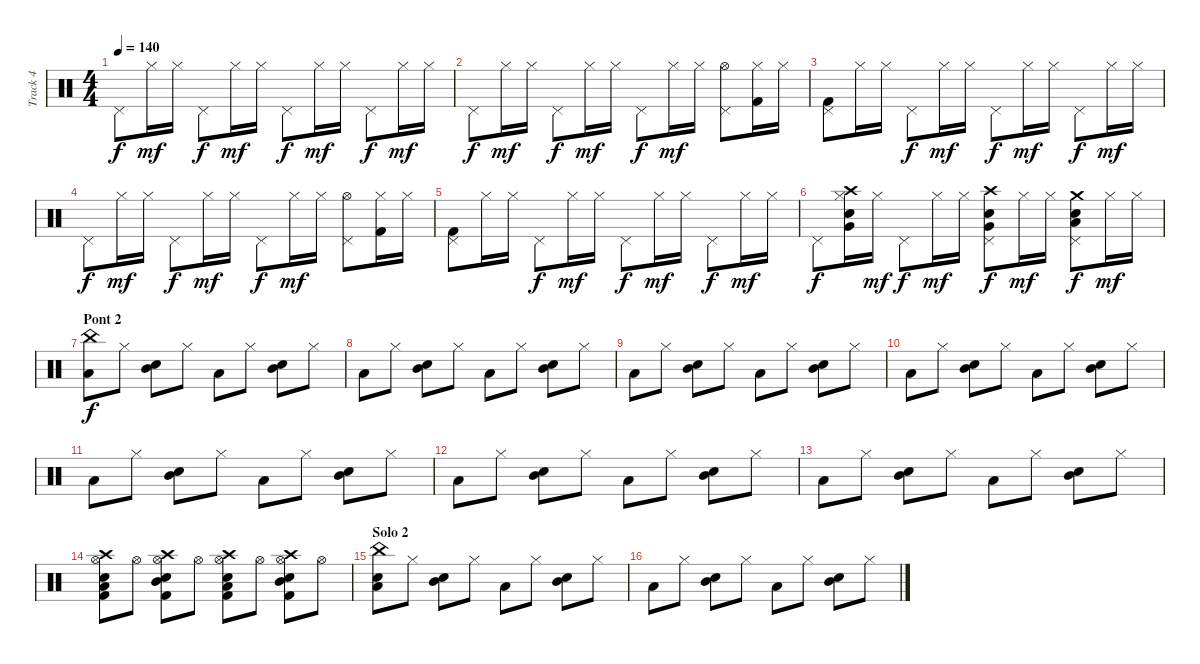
\track ("Track 4" "Track 4") {instrument percussion}
\staff {score}
\articulation defaults
\ts (4 4)
\tempo 140
\clef neutral
\ks c "Pedal Hi-Hat (hit)".8{dy f} "Hi-Hat (closed)".16{dy mf} "Hi-Hat (closed)".16 "Pedal Hi-Hat (hit)".8{dy f} "Hi-Hat (closed)".16{dy mf} "Hi-Hat (closed)".16 "Pedal Hi-Hat (hit)".8{dy f} "Hi-Hat (closed)".16{dy mf} "Hi-Hat (closed)".16 "Pedal Hi-Hat (hit)".8{dy f} "Hi-Hat (closed)".16{dy mf} "Hi-Hat (closed)".16
|
"Pedal Hi-Hat (hit)".8{dy f} "Hi-Hat (closed)".16{dy mf} "Hi-Hat (closed)".16 "Pedal Hi-Hat (hit)".8{dy f} "Hi-Hat (closed)".16{dy mf} "Hi-Hat (closed)".16 "Pedal Hi-Hat (hit)".8{dy f} "Hi-Hat (closed)".16{dy mf} "Hi-Hat (closed)".16 ("Pedal Hi-Hat (hit)" "Hi-Hat (open)").8 ("Hi-Hat (closed)" "Kick (hit) 2").16 "Hi-Hat (closed)".16 |
("Pedal Hi-Hat (hit)" "Kick (hit) 2").8 "Hi-Hat (closed)".16 "Hi-Hat (closed)".16 "Pedal Hi-Hat (hit)".8{dy f} "Hi-Hat (closed)".16{dy mf} "Hi-Hat (closed)".16 "Pedal Hi-Hat (hit)".8{dy f} "Hi-Hat (closed)".16{dy mf} "Hi-Hat (closed)".16 "Pedal Hi-Hat (hit)".8{dy f} "Hi-Hat (closed)".16{dy mf} "Hi-Hat (closed)".16 |
"Pedal Hi-Hat (hit)".8{dy f} "Hi-Hat (closed)".16{dy mf} "Hi-Hat (closed)".16 "Pedal Hi-Hat (hit)".8{dy f} "Hi-Hat (closed)".16{dy mf} "Hi-Hat (closed)".16 "Pedal Hi-Hat (hit)".8{dy f} "Hi-Hat (closed)".16{dy mf} "Hi-Hat (closed)".16 ("Pedal Hi-Hat (hit)" "Hi-Hat (open)").8 ("Hi-Hat (closed)" "Kick (hit) 2").16 "Hi-Hat (closed)".16 |
("Pedal Hi-Hat (hit)" "Kick (hit) 2").8 "Hi-Hat (closed)".16 "Hi-Hat (closed)".16 "Pedal Hi-Hat (hit)".8{dy f} "Hi-Hat (closed)".16{dy mf} "Hi-Hat (closed)".16 "Pedal Hi-Hat (hit)".8{dy f} "Hi-Hat (closed)".16{dy mf} "Hi-Hat (closed)".16 "Pedal Hi-Hat (hit)".8{dy f} "Hi-Hat (closed)".16{dy mf} "Hi-Hat (closed)".16 |
"Pedal Hi-Hat (hit)".8{dy f} ("Hi-Hat (closed)" "Snare (hit) 2" "Very Low Tom (hit)" "Crash high (hit)").16 "Hi-Hat (closed)".16{dy mf} "Pedal Hi-Hat (hit)".8{dy f} "Hi-Hat (closed)".16{dy mf} "Hi-Hat (closed)".16 ("Pedal Hi-Hat (hit)" "Snare (hit) 2" "Very Low Tom (hit)" "Crash high (hit)").8{dy f} "Hi-Hat (closed)".16{dy mf} "Hi-Hat (closed)".16 ("Pedal Hi-Hat (hit)" "Snare (hit) 2" "Low Tom (hit)" "Crash medium (hit)").8{dy f} "Hi-Hat (closed)".16{dy mf} "Hi-Hat (closed)".16 |
\section ("" "Pont 2")
("Low Tom (hit)" "China (hit)").8{dy f} "Hi-Hat (closed)".8 ("Mid Tom (hit)" "Snare (hit) 2").8 "Hi-Hat (closed)".8 "Low Tom (hit)".8 "Hi-Hat (closed)".8 ("Mid Tom (hit)" "Snare (hit) 2").8 "Hi-Hat (closed)".8 |
"Low Tom (hit)".8 "Hi-Hat (closed)".8 ("Mid Tom (hit)" "Snare (hit) 2").8 "Hi-Hat (closed)".8 "Low Tom (hit)".8 "Hi-Hat (closed)".8 ("Mid Tom (hit)" "Snare (hit) 2").8 "Hi-Hat (closed)".8 |
"Low Tom (hit)".8 "Hi-Hat (closed)".8 ("Mid Tom (hit)" "Snare (hit) 2").8 "Hi-Hat (closed)".8 "Low Tom (hit)".8 "Hi-Hat (closed)".8 ("Mid Tom (hit)" "Snare (hit) 2").8 "Hi-Hat (closed)".8 |
"Low Tom (hit)".8 "Hi-Hat (closed)".8 ("Mid Tom (hit)" "Snare (hit) 2").8 "Hi-Hat (closed)".8 "Low Tom (hit)".8 "Hi-Hat (closed)".8 ("Mid Tom (hit)" "Snare (hit) 2").8 "Hi-Hat (closed)".8 |
"Low Tom (hit)".8 "Hi-Hat (closed)".8 ("Mid Tom (hit)" "Snare (hit) 2").8 "Hi-Hat (closed)".8 "Low Tom (hit)".8 "Hi-Hat (closed)".8 ("Mid Tom (hit)" "Snare (hit) 2").8 "Hi-Hat (closed)".8 |
"Low Tom (hit)".8 "Hi-Hat (closed)".8 ("Mid Tom (hit)" "Snare (hit) 2").8 "Hi-Hat (closed)".8 "Low Tom (hit)".8 "Hi-Hat (closed)".8 ("Mid Tom (hit)" "Snare (hit) 2").8 "Hi-Hat (closed)".8 |
"Low Tom (hit)".8 "Hi-Hat (closed)".8 ("Mid Tom (hit)" "Snare (hit) 2").8 "Hi-Hat (closed)".8 "Low Tom (hit)".8 "Hi-Hat (closed)".8 ("Mid Tom (hit)" "Snare (hit) 2").8 "Hi-Hat (closed)".8 |
("Low Tom (hit)" "Snare (hit) 2" "Kick (hit) 2" "Crash high (hit)" "Hi-Hat (open)").8 "Hi-Hat (open)".8 ("Mid Tom (hit)" "Snare (hit) 2" "Kick (hit) 2" "Crash high (hit)" "Hi-Hat (open)").8 "Hi-Hat (open)".8 ("Low Tom (hit)" "Snare (hit) 2" "Kick (hit) 2" "Crash high (hit)" "Hi-Hat (open)").8 "Hi-Hat (open)".8 ("Mid Tom (hit)" "Snare (hit) 2" "Kick (hit) 2" "Crash high (hit)" "Hi-Hat (open)").8 "Hi-Hat (open)".8 |
\section ("" "Solo 2")
("Low Tom (hit)" "China (hit)" "Snare (hit) 2").8 "Hi-Hat (closed)".8 ("Mid Tom (hit)" "Snare (hit) 2").8 "Hi-Hat (closed)".8 "Low Tom (hit)".8 "Hi-Hat (closed)".8 ("Mid Tom (hit)" "Snare (hit) 2").8 "Hi-Hat (closed)".8 |
"Low Tom (hit)".8 "Hi-Hat (closed)".8 ("Mid Tom (hit)" "Snare (hit) 2").8 "Hi-Hat (closed)".8 "Low Tom (hit)".8 "Hi-Hat (closed)".8 ("Mid Tom (hit)" "Snare (hit) 2").8 "Hi-Hat (closed)".8
